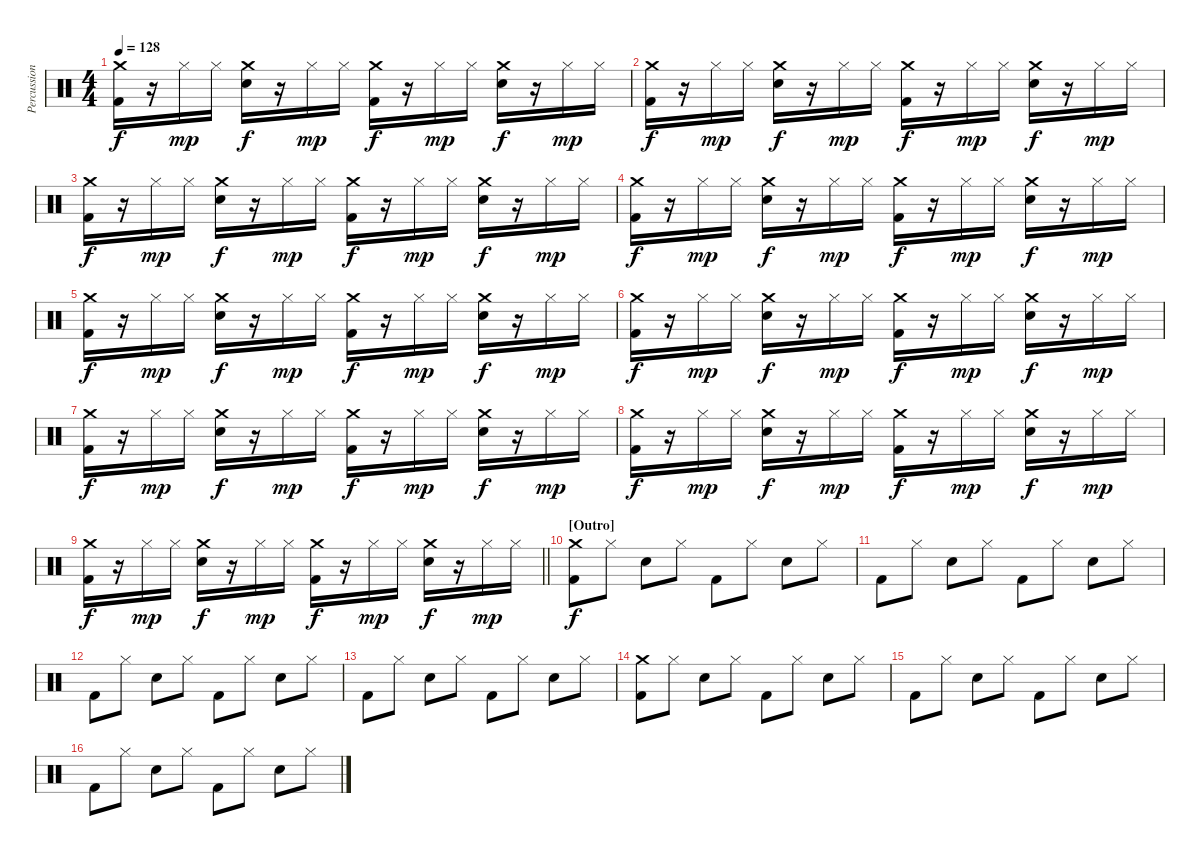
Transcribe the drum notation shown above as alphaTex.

\track ("Percussion" "Percussion") {instrument percussion}
\staff {score}
\articulation defaults
\ts (4 4)
\tempo 128
\clef neutral
\ks c
("Crash medium (hit)" "Kick (hit) 2").16{dy f} r.16 "Hi-Hat (closed)".16{dy mp} "Hi-Hat (closed)".16 ("Crash medium (hit)" "Snare (hit) 2").16{dy f} r.16 "Hi-Hat (closed)".16{dy mp} "Hi-Hat (closed)".16 ("Crash medium (hit)" "Kick (hit) 2").16{dy f} r.16 "Hi-Hat (closed)".16{dy mp} "Hi-Hat (closed)".16 ("Crash medium (hit)" "Snare (hit) 2").16{dy f} r.16 "Hi-Hat (closed)".16{dy mp} "Hi-Hat (closed)".16 |
("Crash medium (hit)" "Kick (hit) 2").16{dy f} r.16 "Hi-Hat (closed)".16{dy mp} "Hi-Hat (closed)".16 ("Crash medium (hit)" "Snare (hit) 2").16{dy f} r.16 "Hi-Hat (closed)".16{dy mp} "Hi-Hat (closed)".16 ("Crash medium (hit)" "Kick (hit) 2").16{dy f} r.16 "Hi-Hat (closed)".16{dy mp} "Hi-Hat (closed)".16 ("Crash medium (hit)" "Snare (hit) 2").16{dy f} r.16 "Hi-Hat (closed)".16{dy mp} "Hi-Hat (closed)".16 |
("Crash medium (hit)" "Kick (hit) 2").16{dy f} r.16 "Hi-Hat (closed)".16{dy mp} "Hi-Hat (closed)".16 ("Crash medium (hit)" "Snare (hit) 2").16{dy f} r.16 "Hi-Hat (closed)".16{dy mp} "Hi-Hat (closed)".16 ("Crash medium (hit)" "Kick (hit) 2").16{dy f} r.16 "Hi-Hat (closed)".16{dy mp} "Hi-Hat (closed)".16 ("Crash medium (hit)" "Snare (hit) 2").16{dy f} r.16 "Hi-Hat (closed)".16{dy mp} "Hi-Hat (closed)".16 |
("Crash medium (hit)" "Kick (hit) 2").16{dy f} r.16 "Hi-Hat (closed)".16{dy mp} "Hi-Hat (closed)".16 ("Crash medium (hit)" "Snare (hit) 2").16{dy f} r.16 "Hi-Hat (closed)".16{dy mp} "Hi-Hat (closed)".16 ("Crash medium (hit)" "Kick (hit) 2").16{dy f} r.16 "Hi-Hat (closed)".16{dy mp} "Hi-Hat (closed)".16 ("Crash medium (hit)" "Snare (hit) 2").16{dy f} r.16 "Hi-Hat (closed)".16{dy mp} "Hi-Hat (closed)".16 |
("Crash medium (hit)" "Kick (hit) 2").16{dy f} r.16 "Hi-Hat (closed)".16{dy mp} "Hi-Hat (closed)".16 ("Crash medium (hit)" "Snare (hit) 2").16{dy f} r.16 "Hi-Hat (closed)".16{dy mp} "Hi-Hat (closed)".16 ("Crash medium (hit)" "Kick (hit) 2").16{dy f} r.16 "Hi-Hat (closed)".16{dy mp} "Hi-Hat (closed)".16 ("Crash medium (hit)" "Snare (hit) 2").16{dy f} r.16 "Hi-Hat (closed)".16{dy mp} "Hi-Hat (closed)".16 |
("Crash medium (hit)" "Kick (hit) 2").16{dy f} r.16 "Hi-Hat (closed)".16{dy mp} "Hi-Hat (closed)".16 ("Crash medium (hit)" "Snare (hit) 2").16{dy f} r.16 "Hi-Hat (closed)".16{dy mp} "Hi-Hat (closed)".16 ("Crash medium (hit)" "Kick (hit) 2").16{dy f} r.16 "Hi-Hat (closed)".16{dy mp} "Hi-Hat (closed)".16 ("Crash medium (hit)" "Snare (hit) 2").16{dy f} r.16 "Hi-Hat (closed)".16{dy mp} "Hi-Hat (closed)".16 |
("Crash medium (hit)" "Kick (hit) 2").16{dy f} r.16 "Hi-Hat (closed)".16{dy mp} "Hi-Hat (closed)".16 ("Crash medium (hit)" "Snare (hit) 2").16{dy f} r.16 "Hi-Hat (closed)".16{dy mp} "Hi-Hat (closed)".16 ("Crash medium (hit)" "Kick (hit) 2").16{dy f} r.16 "Hi-Hat (closed)".16{dy mp} "Hi-Hat (closed)".16 ("Crash medium (hit)" "Snare (hit) 2").16{dy f} r.16 "Hi-Hat (closed)".16{dy mp} "Hi-Hat (closed)".16 |
("Crash medium (hit)" "Kick (hit) 2").16{dy f} r.16 "Hi-Hat (closed)".16{dy mp} "Hi-Hat (closed)".16 ("Crash medium (hit)" "Snare (hit) 2").16{dy f} r.16 "Hi-Hat (closed)".16{dy mp} "Hi-Hat (closed)".16 ("Crash medium (hit)" "Kick (hit) 2").16{dy f} r.16 "Hi-Hat (closed)".16{dy mp} "Hi-Hat (closed)".16 ("Crash medium (hit)" "Snare (hit) 2").16{dy f} r.16 "Hi-Hat (closed)".16{dy mp} "Hi-Hat (closed)".16 |
\barLineRight lightlight
("Crash medium (hit)" "Kick (hit) 2").16{dy f} r.16 "Hi-Hat (closed)".16{dy mp} "Hi-Hat (closed)".16 ("Crash medium (hit)" "Snare (hit) 2").16{dy f} r.16 "Hi-Hat (closed)".16{dy mp} "Hi-Hat (closed)".16 ("Crash medium (hit)" "Kick (hit) 2").16{dy f} r.16 "Hi-Hat (closed)".16{dy mp} "Hi-Hat (closed)".16 ("Crash medium (hit)" "Snare (hit) 2").16{dy f} r.16 "Hi-Hat (closed)".16{dy mp} "Hi-Hat (closed)".16 |
\section ("" "[Outro]")
("Crash medium (hit)" "Kick (hit) 2").8{dy f} "Hi-Hat (closed)".8 "Snare (hit) 2".8 "Hi-Hat (closed)".8 "Kick (hit) 2".8 "Hi-Hat (closed)".8 "Snare (hit) 2".8 "Hi-Hat (closed)".8 |
"Kick (hit) 2".8 "Hi-Hat (closed)".8 "Snare (hit) 2".8 "Hi-Hat (closed)".8 "Kick (hit) 2".8 "Hi-Hat (closed)".8 "Snare (hit) 2".8 "Hi-Hat (closed)".8 |
"Kick (hit) 2".8 "Hi-Hat (closed)".8 "Snare (hit) 2".8 "Hi-Hat (closed)".8 "Kick (hit) 2".8 "Hi-Hat (closed)".8 "Snare (hit) 2".8 "Hi-Hat (closed)".8 |
"Kick (hit) 2".8 "Hi-Hat (closed)".8 "Snare (hit) 2".8 "Hi-Hat (closed)".8 "Kick (hit) 2".8 "Hi-Hat (closed)".8 "Snare (hit) 2".8 "Hi-Hat (closed)".8 |
("Crash medium (hit)" "Kick (hit) 2").8 "Hi-Hat (closed)".8 "Snare (hit) 2".8 "Hi-Hat (closed)".8 "Kick (hit) 2".8 "Hi-Hat (closed)".8 "Snare (hit) 2".8 "Hi-Hat (closed)".8 |
"Kick (hit) 2".8 "Hi-Hat (closed)".8 "Snare (hit) 2".8 "Hi-Hat (closed)".8 "Kick (hit) 2".8 "Hi-Hat (closed)".8 "Snare (hit) 2".8 "Hi-Hat (closed)".8 |
"Kick (hit) 2".8 "Hi-Hat (closed)".8 "Snare (hit) 2".8 "Hi-Hat (closed)".8 "Kick (hit) 2".8 "Hi-Hat (closed)".8 "Snare (hit) 2".8 "Hi-Hat (closed)".8
